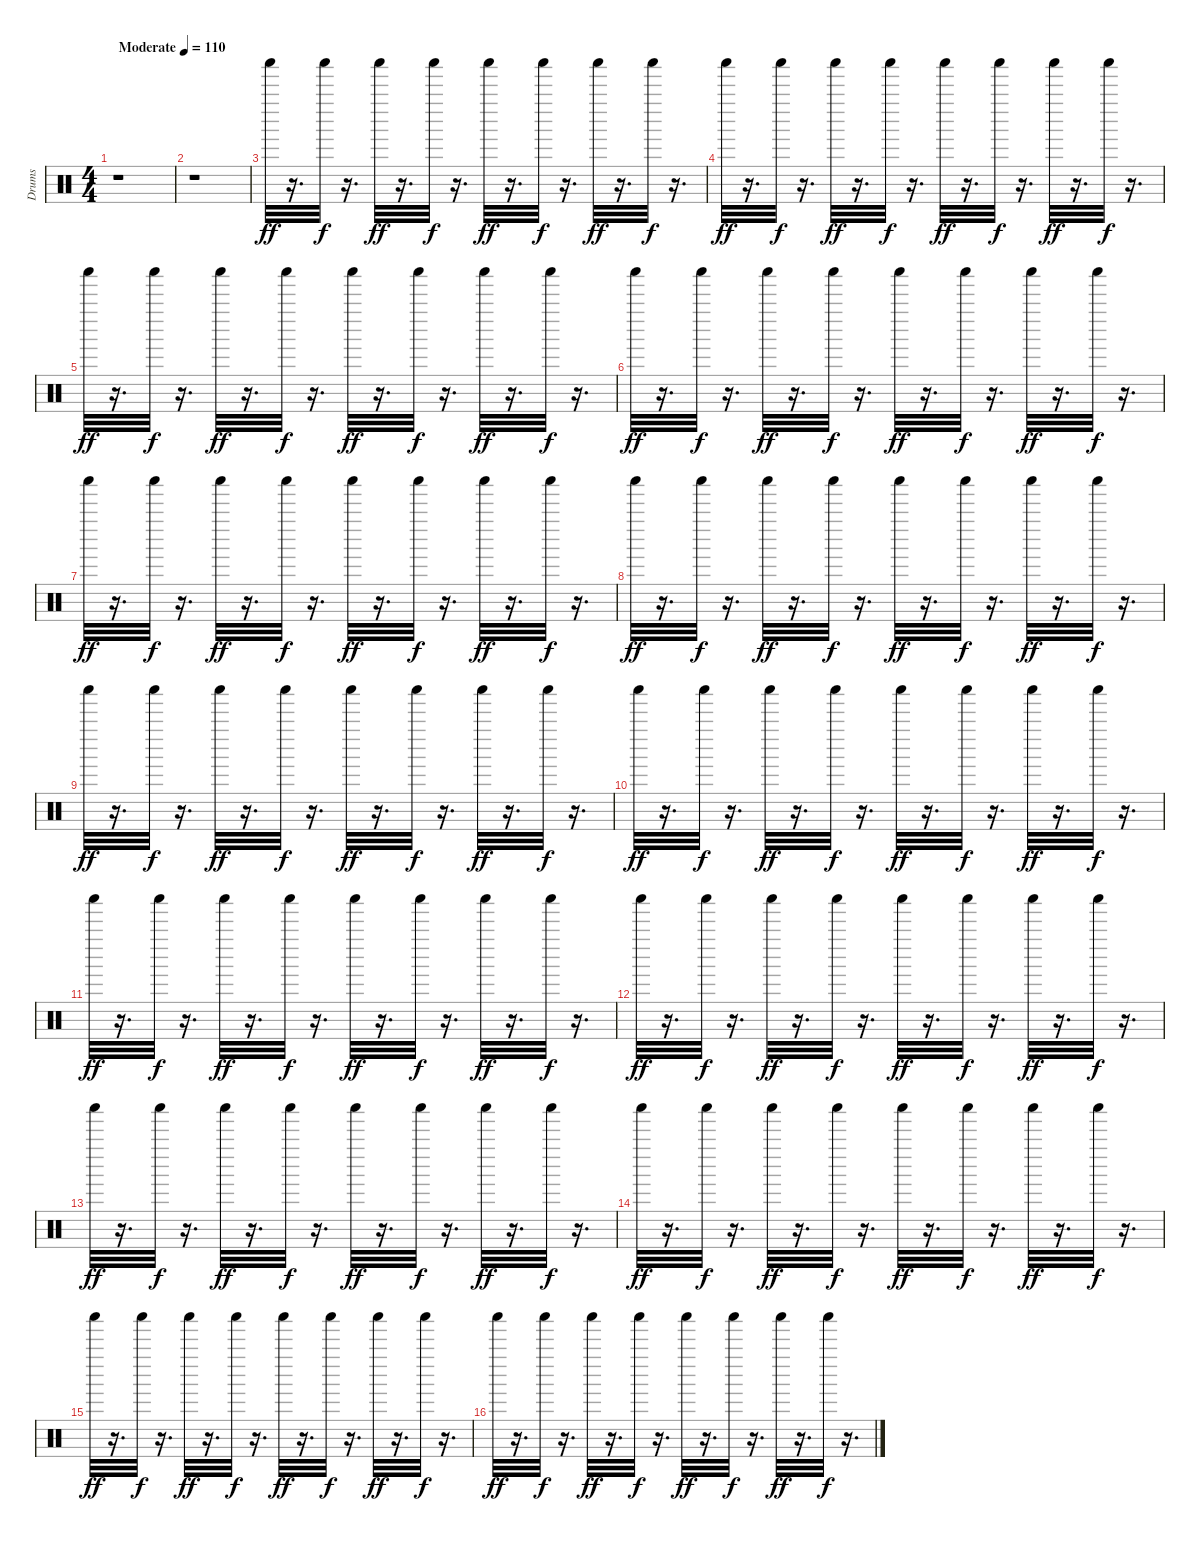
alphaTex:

\track ("Drums" "Drums") {instrument percussion}
\staff {score}
\articulation defaults
\ts (4 4)
\tempo (110 "Moderate")
\clef neutral
\ks c
r.1{dy ff} |
r.1 |
"Shaker (hit)".32 r.16{d} "Shaker (hit)".32{dy f} r.16{d} "Shaker (hit)".32{dy ff} r.16{d} "Shaker (hit)".32{dy f} r.16{d} "Shaker (hit)".32{dy ff} r.16{d} "Shaker (hit)".32{dy f} r.16{d} "Shaker (hit)".32{dy ff} r.16{d} "Shaker (hit)".32{dy f} r.16{d} |
"Shaker (hit)".32{dy ff} r.16{d} "Shaker (hit)".32{dy f} r.16{d} "Shaker (hit)".32{dy ff} r.16{d} "Shaker (hit)".32{dy f} r.16{d} "Shaker (hit)".32{dy ff} r.16{d} "Shaker (hit)".32{dy f} r.16{d} "Shaker (hit)".32{dy ff} r.16{d} "Shaker (hit)".32{dy f} r.16{d} |
"Shaker (hit)".32{dy ff} r.16{d} "Shaker (hit)".32{dy f} r.16{d} "Shaker (hit)".32{dy ff} r.16{d} "Shaker (hit)".32{dy f} r.16{d} "Shaker (hit)".32{dy ff} r.16{d} "Shaker (hit)".32{dy f} r.16{d} "Shaker (hit)".32{dy ff} r.16{d} "Shaker (hit)".32{dy f} r.16{d} |
"Shaker (hit)".32{dy ff} r.16{d} "Shaker (hit)".32{dy f} r.16{d} "Shaker (hit)".32{dy ff} r.16{d} "Shaker (hit)".32{dy f} r.16{d} "Shaker (hit)".32{dy ff} r.16{d} "Shaker (hit)".32{dy f} r.16{d} "Shaker (hit)".32{dy ff} r.16{d} "Shaker (hit)".32{dy f} r.16{d} |
"Shaker (hit)".32{dy ff} r.16{d} "Shaker (hit)".32{dy f} r.16{d} "Shaker (hit)".32{dy ff} r.16{d} "Shaker (hit)".32{dy f} r.16{d} "Shaker (hit)".32{dy ff} r.16{d} "Shaker (hit)".32{dy f} r.16{d} "Shaker (hit)".32{dy ff} r.16{d} "Shaker (hit)".32{dy f} r.16{d} |
"Shaker (hit)".32{dy ff} r.16{d} "Shaker (hit)".32{dy f} r.16{d} "Shaker (hit)".32{dy ff} r.16{d} "Shaker (hit)".32{dy f} r.16{d} "Shaker (hit)".32{dy ff} r.16{d} "Shaker (hit)".32{dy f} r.16{d} "Shaker (hit)".32{dy ff} r.16{d} "Shaker (hit)".32{dy f} r.16{d} |
"Shaker (hit)".32{dy ff} r.16{d} "Shaker (hit)".32{dy f} r.16{d} "Shaker (hit)".32{dy ff} r.16{d} "Shaker (hit)".32{dy f} r.16{d} "Shaker (hit)".32{dy ff} r.16{d} "Shaker (hit)".32{dy f} r.16{d} "Shaker (hit)".32{dy ff} r.16{d} "Shaker (hit)".32{dy f} r.16{d} |
"Shaker (hit)".32{dy ff} r.16{d} "Shaker (hit)".32{dy f} r.16{d} "Shaker (hit)".32{dy ff} r.16{d} "Shaker (hit)".32{dy f} r.16{d} "Shaker (hit)".32{dy ff} r.16{d} "Shaker (hit)".32{dy f} r.16{d} "Shaker (hit)".32{dy ff} r.16{d} "Shaker (hit)".32{dy f} r.16{d} |
"Shaker (hit)".32{dy ff} r.16{d} "Shaker (hit)".32{dy f} r.16{d} "Shaker (hit)".32{dy ff} r.16{d} "Shaker (hit)".32{dy f} r.16{d} "Shaker (hit)".32{dy ff} r.16{d} "Shaker (hit)".32{dy f} r.16{d} "Shaker (hit)".32{dy ff} r.16{d} "Shaker (hit)".32{dy f} r.16{d} |
"Shaker (hit)".32{dy ff} r.16{d} "Shaker (hit)".32{dy f} r.16{d} "Shaker (hit)".32{dy ff} r.16{d} "Shaker (hit)".32{dy f} r.16{d} "Shaker (hit)".32{dy ff} r.16{d} "Shaker (hit)".32{dy f} r.16{d} "Shaker (hit)".32{dy ff} r.16{d} "Shaker (hit)".32{dy f} r.16{d} |
"Shaker (hit)".32{dy ff} r.16{d} "Shaker (hit)".32{dy f} r.16{d} "Shaker (hit)".32{dy ff} r.16{d} "Shaker (hit)".32{dy f} r.16{d} "Shaker (hit)".32{dy ff} r.16{d} "Shaker (hit)".32{dy f} r.16{d} "Shaker (hit)".32{dy ff} r.16{d} "Shaker (hit)".32{dy f} r.16{d} |
"Shaker (hit)".32{dy ff} r.16{d} "Shaker (hit)".32{dy f} r.16{d} "Shaker (hit)".32{dy ff} r.16{d} "Shaker (hit)".32{dy f} r.16{d} "Shaker (hit)".32{dy ff} r.16{d} "Shaker (hit)".32{dy f} r.16{d} "Shaker (hit)".32{dy ff} r.16{d} "Shaker (hit)".32{dy f} r.16{d} |
"Shaker (hit)".32{dy ff} r.16{d} "Shaker (hit)".32{dy f} r.16{d} "Shaker (hit)".32{dy ff} r.16{d} "Shaker (hit)".32{dy f} r.16{d} "Shaker (hit)".32{dy ff} r.16{d} "Shaker (hit)".32{dy f} r.16{d} "Shaker (hit)".32{dy ff} r.16{d} "Shaker (hit)".32{dy f} r.16{d} |
"Shaker (hit)".32{dy ff} r.16{d} "Shaker (hit)".32{dy f} r.16{d} "Shaker (hit)".32{dy ff} r.16{d} "Shaker (hit)".32{dy f} r.16{d} "Shaker (hit)".32{dy ff} r.16{d} "Shaker (hit)".32{dy f} r.16{d} "Shaker (hit)".32{dy ff} r.16{d} "Shaker (hit)".32{dy f} r.16{d}
